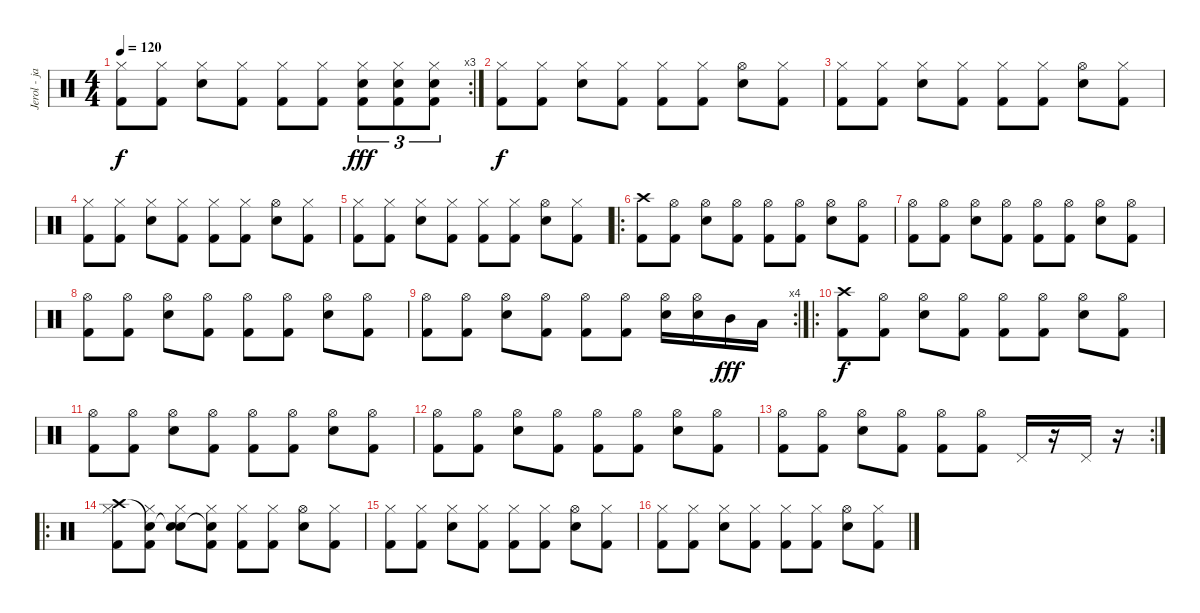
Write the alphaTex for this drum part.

\track ("Jerol - jazm." "Jerol - ja") {instrument percussion}
\staff {score}
\articulation defaults
\rc 3
\ts (4 4)
\tempo 120
\clef neutral
\ks c
("Hi-Hat (closed)" "Kick (hit) 2").8{dy f} ("Hi-Hat (closed)" "Kick (hit) 2").8 ("Hi-Hat (closed)" "Snare (hit) 2").8 ("Hi-Hat (closed)" "Kick (hit) 2").8 ("Hi-Hat (closed)" "Kick (hit) 2").8 ("Hi-Hat (closed)" "Kick (hit) 2").8 ("Kick (hit) 2" "Hi-Hat (closed)" "Electric Snare (hit)").8{tu (3 2) dy fff} ("Kick (hit) 2" "Hi-Hat (closed)" "Electric Snare (hit)").8{tu (3 2)} ("Kick (hit) 2" "Hi-Hat (closed)" "Electric Snare (hit)").8{tu (3 2)} |
("Hi-Hat (closed)" "Kick (hit) 2").8{dy f} ("Hi-Hat (closed)" "Kick (hit) 2").8 ("Hi-Hat (closed)" "Snare (hit) 2").8 ("Hi-Hat (closed)" "Kick (hit) 2").8 ("Hi-Hat (closed)" "Kick (hit) 2").8 ("Hi-Hat (closed)" "Kick (hit) 2").8 ("Hi-Hat (open)" "Snare (hit) 2").8 ("Hi-Hat (closed)" "Kick (hit) 2").8 |
("Hi-Hat (closed)" "Kick (hit) 2").8 ("Hi-Hat (closed)" "Kick (hit) 2").8 ("Hi-Hat (closed)" "Snare (hit) 2").8 ("Hi-Hat (closed)" "Kick (hit) 2").8 ("Hi-Hat (closed)" "Kick (hit) 2").8 ("Hi-Hat (closed)" "Kick (hit) 2").8 ("Hi-Hat (open)" "Snare (hit) 2").8 ("Hi-Hat (closed)" "Kick (hit) 2").8 |
("Hi-Hat (closed)" "Kick (hit) 2").8 ("Hi-Hat (closed)" "Kick (hit) 2").8 ("Hi-Hat (closed)" "Snare (hit) 2").8 ("Hi-Hat (closed)" "Kick (hit) 2").8 ("Hi-Hat (closed)" "Kick (hit) 2").8 ("Hi-Hat (closed)" "Kick (hit) 2").8 ("Hi-Hat (open)" "Snare (hit) 2").8 ("Hi-Hat (closed)" "Kick (hit) 2").8 |
("Hi-Hat (closed)" "Kick (hit) 2").8 ("Hi-Hat (closed)" "Kick (hit) 2").8 ("Hi-Hat (closed)" "Snare (hit) 2").8 ("Hi-Hat (closed)" "Kick (hit) 2").8 ("Hi-Hat (closed)" "Kick (hit) 2").8 ("Hi-Hat (closed)" "Kick (hit) 2").8 ("Hi-Hat (open)" "Snare (hit) 2").8 ("Hi-Hat (closed)" "Kick (hit) 2").8 |
\ro
("Crash high (hit)" "Kick (hit) 2").8 ("Hi-Hat (open)" "Kick (hit) 2").8 ("Hi-Hat (open)" "Snare (hit) 2").8 ("Hi-Hat (open)" "Kick (hit) 2").8 ("Hi-Hat (open)" "Kick (hit) 2").8 ("Hi-Hat (open)" "Kick (hit) 2").8 ("Hi-Hat (open)" "Snare (hit) 2").8 ("Hi-Hat (open)" "Kick (hit) 2").8 |
("Hi-Hat (open)" "Kick (hit) 2").8 ("Hi-Hat (open)" "Kick (hit) 2").8 ("Hi-Hat (open)" "Snare (hit) 2").8 ("Hi-Hat (open)" "Kick (hit) 2").8 ("Hi-Hat (open)" "Kick (hit) 2").8 ("Hi-Hat (open)" "Kick (hit) 2").8 ("Hi-Hat (open)" "Snare (hit) 2").8 ("Hi-Hat (open)" "Kick (hit) 2").8 |
("Hi-Hat (open)" "Kick (hit) 2").8 ("Hi-Hat (open)" "Kick (hit) 2").8 ("Hi-Hat (open)" "Snare (hit) 2").8 ("Hi-Hat (open)" "Kick (hit) 2").8 ("Hi-Hat (open)" "Kick (hit) 2").8 ("Hi-Hat (open)" "Kick (hit) 2").8 ("Hi-Hat (open)" "Snare (hit) 2").8 ("Hi-Hat (open)" "Kick (hit) 2").8 |
\rc 4
("Hi-Hat (open)" "Kick (hit) 2").8 ("Hi-Hat (open)" "Kick (hit) 2").8 ("Hi-Hat (open)" "Snare (hit) 2").8 ("Hi-Hat (open)" "Kick (hit) 2").8 ("Hi-Hat (open)" "Kick (hit) 2").8 ("Hi-Hat (open)" "Kick (hit) 2").8 ("Hi-Hat (open)" "Snare (hit) 2").16 ("Hi-Hat (open)" "Snare (hit) 2").16 "Mid Tom (hit)".16{dy fff} "Low Tom (hit)".16 |
\ro
("Crash high (hit)" "Kick (hit) 2").8{dy f} ("Hi-Hat (open)" "Kick (hit) 2").8 ("Hi-Hat (open)" "Snare (hit) 2").8 ("Hi-Hat (open)" "Kick (hit) 2").8 ("Hi-Hat (open)" "Kick (hit) 2").8 ("Hi-Hat (open)" "Kick (hit) 2").8 ("Hi-Hat (open)" "Snare (hit) 2").8 ("Hi-Hat (open)" "Kick (hit) 2").8 |
("Hi-Hat (open)" "Kick (hit) 2").8 ("Hi-Hat (open)" "Kick (hit) 2").8 ("Hi-Hat (open)" "Snare (hit) 2").8 ("Hi-Hat (open)" "Kick (hit) 2").8 ("Hi-Hat (open)" "Kick (hit) 2").8 ("Hi-Hat (open)" "Kick (hit) 2").8 ("Hi-Hat (open)" "Snare (hit) 2").8 ("Hi-Hat (open)" "Kick (hit) 2").8 |
("Hi-Hat (open)" "Kick (hit) 2").8 ("Hi-Hat (open)" "Kick (hit) 2").8 ("Hi-Hat (open)" "Snare (hit) 2").8 ("Hi-Hat (open)" "Kick (hit) 2").8 ("Hi-Hat (open)" "Kick (hit) 2").8 ("Hi-Hat (open)" "Kick (hit) 2").8 ("Hi-Hat (open)" "Snare (hit) 2").8 ("Hi-Hat (open)" "Kick (hit) 2").8 |
\rc 2
("Hi-Hat (open)" "Kick (hit) 2").8 ("Hi-Hat (open)" "Kick (hit) 2").8 ("Hi-Hat (open)" "Snare (hit) 2").8 ("Hi-Hat (open)" "Kick (hit) 2").8 ("Hi-Hat (open)" "Kick (hit) 2").8 ("Hi-Hat (open)" "Kick (hit) 2").8 "Pedal Hi-Hat (hit)".16 r.16 "Pedal Hi-Hat (hit)".16 r.16 |
\ro
("Crash high (hit)" "Hi-Hat (closed)" "Kick (hit) 2").8 ("Snare (hit)"{t} "Hi-Hat (closed)" "Kick (hit) 2").8 ("Snare (hit)"{t} "Hi-Hat (closed)" "Snare (hit) 2").8 ("Snare (hit)"{t} "Hi-Hat (closed)" "Kick (hit) 2").8 ("Hi-Hat (closed)" "Kick (hit) 2").8 ("Hi-Hat (closed)" "Kick (hit) 2").8 ("Hi-Hat (open)" "Snare (hit) 2").8 ("Hi-Hat (closed)" "Kick (hit) 2").8 |
("Hi-Hat (closed)" "Kick (hit) 2").8 ("Hi-Hat (closed)" "Kick (hit) 2").8 ("Hi-Hat (closed)" "Snare (hit) 2").8 ("Hi-Hat (closed)" "Kick (hit) 2").8 ("Hi-Hat (closed)" "Kick (hit) 2").8 ("Hi-Hat (closed)" "Kick (hit) 2").8 ("Hi-Hat (open)" "Snare (hit) 2").8 ("Hi-Hat (closed)" "Kick (hit) 2").8 |
("Hi-Hat (closed)" "Kick (hit) 2").8 ("Hi-Hat (closed)" "Kick (hit) 2").8 ("Hi-Hat (closed)" "Snare (hit) 2").8 ("Hi-Hat (closed)" "Kick (hit) 2").8 ("Hi-Hat (closed)" "Kick (hit) 2").8 ("Hi-Hat (closed)" "Kick (hit) 2").8 ("Hi-Hat (open)" "Snare (hit) 2").8 ("Hi-Hat (closed)" "Kick (hit) 2").8
